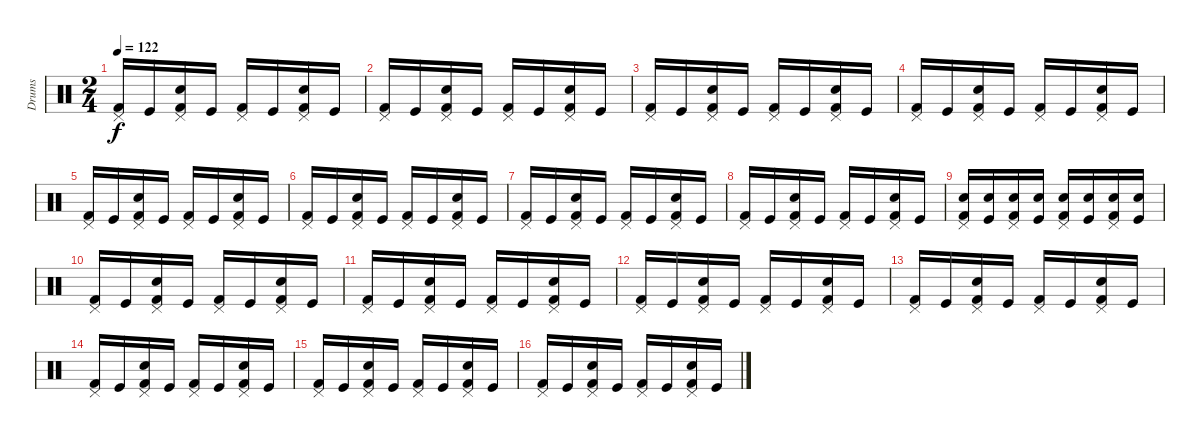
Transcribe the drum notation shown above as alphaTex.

\track ("Drums" "Drums") {instrument percussion}
\staff {score}
\articulation defaults
\ts (2 4)
\tempo 122
\clef neutral
\ks c
("Pedal Hi-Hat (hit)" "Kick (hit) 2").16{dy f} "Kick (hit)".16 ("Pedal Hi-Hat (hit)" "Snare (hit) 2" "Kick (hit) 2").16 "Kick (hit)".16 ("Pedal Hi-Hat (hit)" "Kick (hit) 2").16 "Kick (hit)".16 ("Pedal Hi-Hat (hit)" "Snare (hit) 2" "Kick (hit) 2").16 "Kick (hit)".16 |
("Pedal Hi-Hat (hit)" "Kick (hit) 2").16 "Kick (hit)".16 ("Pedal Hi-Hat (hit)" "Snare (hit) 2" "Kick (hit) 2").16 "Kick (hit)".16 ("Pedal Hi-Hat (hit)" "Kick (hit) 2").16 "Kick (hit)".16 ("Pedal Hi-Hat (hit)" "Snare (hit) 2" "Kick (hit) 2").16 "Kick (hit)".16 |
("Pedal Hi-Hat (hit)" "Kick (hit) 2").16 "Kick (hit)".16 ("Pedal Hi-Hat (hit)" "Snare (hit) 2" "Kick (hit) 2").16 "Kick (hit)".16 ("Pedal Hi-Hat (hit)" "Kick (hit) 2").16 "Kick (hit)".16 ("Pedal Hi-Hat (hit)" "Snare (hit) 2" "Kick (hit) 2").16 "Kick (hit)".16 |
("Pedal Hi-Hat (hit)" "Kick (hit) 2").16 "Kick (hit)".16 ("Pedal Hi-Hat (hit)" "Snare (hit) 2" "Kick (hit) 2").16 "Kick (hit)".16 ("Pedal Hi-Hat (hit)" "Kick (hit) 2").16 "Kick (hit)".16 ("Pedal Hi-Hat (hit)" "Snare (hit) 2" "Kick (hit) 2").16 "Kick (hit)".16 |
("Pedal Hi-Hat (hit)" "Kick (hit) 2").16 "Kick (hit)".16 ("Pedal Hi-Hat (hit)" "Snare (hit) 2" "Kick (hit) 2").16 "Kick (hit)".16 ("Pedal Hi-Hat (hit)" "Kick (hit) 2").16 "Kick (hit)".16 ("Pedal Hi-Hat (hit)" "Snare (hit) 2" "Kick (hit) 2").16 "Kick (hit)".16 |
("Pedal Hi-Hat (hit)" "Kick (hit) 2").16 "Kick (hit)".16 ("Pedal Hi-Hat (hit)" "Snare (hit) 2" "Kick (hit) 2").16 "Kick (hit)".16 ("Pedal Hi-Hat (hit)" "Kick (hit) 2").16 "Kick (hit)".16 ("Pedal Hi-Hat (hit)" "Snare (hit) 2" "Kick (hit) 2").16 "Kick (hit)".16 |
("Pedal Hi-Hat (hit)" "Kick (hit) 2").16 "Kick (hit)".16 ("Pedal Hi-Hat (hit)" "Snare (hit) 2" "Kick (hit) 2").16 "Kick (hit)".16 ("Pedal Hi-Hat (hit)" "Kick (hit) 2").16 "Kick (hit)".16 ("Pedal Hi-Hat (hit)" "Snare (hit) 2" "Kick (hit) 2").16 "Kick (hit)".16 |
("Pedal Hi-Hat (hit)" "Kick (hit) 2").16 "Kick (hit)".16 ("Pedal Hi-Hat (hit)" "Snare (hit) 2" "Kick (hit) 2").16 "Kick (hit)".16 ("Pedal Hi-Hat (hit)" "Kick (hit) 2").16 "Kick (hit)".16 ("Pedal Hi-Hat (hit)" "Snare (hit) 2" "Kick (hit) 2").16 "Kick (hit)".16 |
("Pedal Hi-Hat (hit)" "Snare (hit) 2" "Kick (hit) 2").16 ("Snare (hit) 2" "Kick (hit)").16 ("Pedal Hi-Hat (hit)" "Snare (hit) 2" "Kick (hit) 2").16 ("Snare (hit) 2" "Kick (hit)").16 ("Pedal Hi-Hat (hit)" "Snare (hit) 2" "Kick (hit) 2").16 ("Snare (hit) 2" "Kick (hit)").16 ("Pedal Hi-Hat (hit)" "Snare (hit) 2" "Kick (hit) 2").16 ("Snare (hit) 2" "Kick (hit)").16 |
("Pedal Hi-Hat (hit)" "Kick (hit) 2").16 "Kick (hit)".16 ("Pedal Hi-Hat (hit)" "Snare (hit) 2" "Kick (hit) 2").16 "Kick (hit)".16 ("Pedal Hi-Hat (hit)" "Kick (hit) 2").16 "Kick (hit)".16 ("Pedal Hi-Hat (hit)" "Snare (hit) 2" "Kick (hit) 2").16 "Kick (hit)".16 |
("Pedal Hi-Hat (hit)" "Kick (hit) 2").16 "Kick (hit)".16 ("Pedal Hi-Hat (hit)" "Snare (hit) 2" "Kick (hit) 2").16 "Kick (hit)".16 ("Pedal Hi-Hat (hit)" "Kick (hit) 2").16 "Kick (hit)".16 ("Pedal Hi-Hat (hit)" "Snare (hit) 2" "Kick (hit) 2").16 "Kick (hit)".16 |
("Pedal Hi-Hat (hit)" "Kick (hit) 2").16 "Kick (hit)".16 ("Pedal Hi-Hat (hit)" "Snare (hit) 2" "Kick (hit) 2").16 "Kick (hit)".16 ("Pedal Hi-Hat (hit)" "Kick (hit) 2").16 "Kick (hit)".16 ("Pedal Hi-Hat (hit)" "Snare (hit) 2" "Kick (hit) 2").16 "Kick (hit)".16 |
("Pedal Hi-Hat (hit)" "Kick (hit) 2").16 "Kick (hit)".16 ("Pedal Hi-Hat (hit)" "Snare (hit) 2" "Kick (hit) 2").16 "Kick (hit)".16 ("Pedal Hi-Hat (hit)" "Kick (hit) 2").16 "Kick (hit)".16 ("Pedal Hi-Hat (hit)" "Snare (hit) 2" "Kick (hit) 2").16 "Kick (hit)".16 |
("Pedal Hi-Hat (hit)" "Kick (hit) 2").16 "Kick (hit)".16 ("Pedal Hi-Hat (hit)" "Snare (hit) 2" "Kick (hit) 2").16 "Kick (hit)".16 ("Pedal Hi-Hat (hit)" "Kick (hit) 2").16 "Kick (hit)".16 ("Pedal Hi-Hat (hit)" "Snare (hit) 2" "Kick (hit) 2").16 "Kick (hit)".16 |
("Pedal Hi-Hat (hit)" "Kick (hit) 2").16 "Kick (hit)".16 ("Pedal Hi-Hat (hit)" "Snare (hit) 2" "Kick (hit) 2").16 "Kick (hit)".16 ("Pedal Hi-Hat (hit)" "Kick (hit) 2").16 "Kick (hit)".16 ("Pedal Hi-Hat (hit)" "Snare (hit) 2" "Kick (hit) 2").16 "Kick (hit)".16 |
("Pedal Hi-Hat (hit)" "Kick (hit) 2").16 "Kick (hit)".16 ("Pedal Hi-Hat (hit)" "Snare (hit) 2" "Kick (hit) 2").16 "Kick (hit)".16 ("Pedal Hi-Hat (hit)" "Kick (hit) 2").16 "Kick (hit)".16 ("Pedal Hi-Hat (hit)" "Snare (hit) 2" "Kick (hit) 2").16 "Kick (hit)".16
